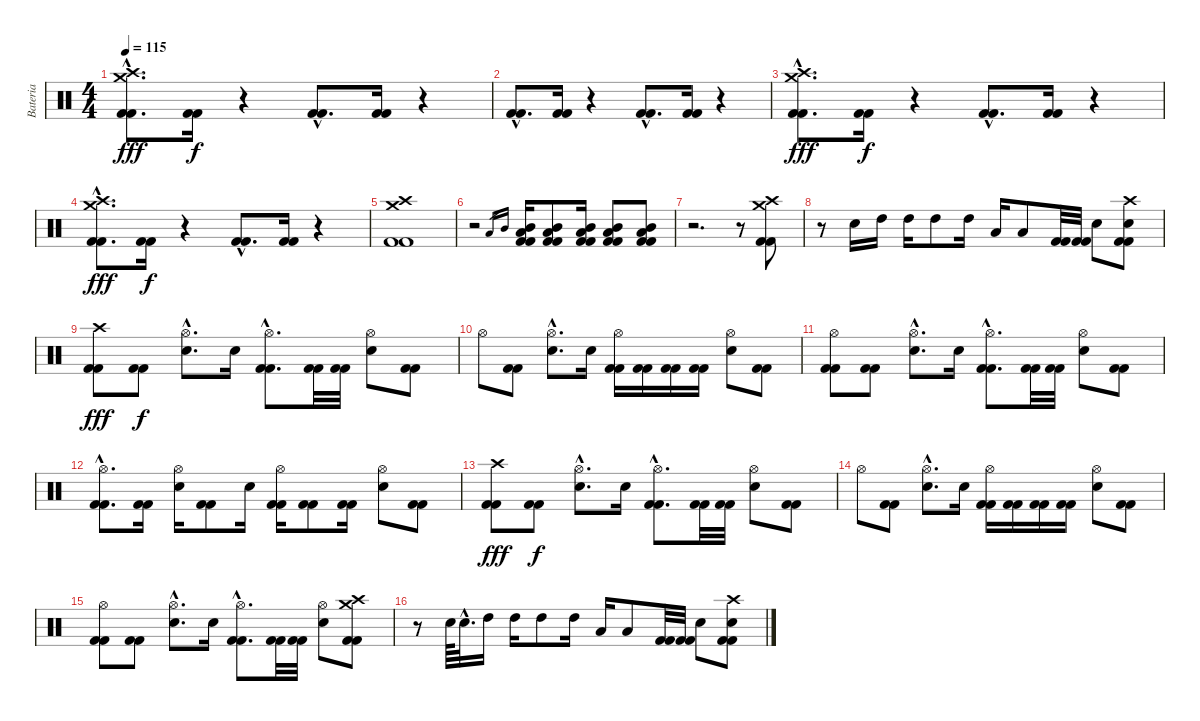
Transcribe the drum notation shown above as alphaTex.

\track ("Bateria" "Bateria") {instrument percussion}
\staff {score}
\articulation defaults
\ts (4 4)
\tempo 115
\clef neutral
\ks c
("Crash high (hit)" "Crash medium (hit)" "Kick (hit) 2"{hac} "Kick (hit) 2"{hac}).8{d dy fff} ("Kick (hit) 2" "Kick (hit) 2").16{dy f} r.4 ("Kick (hit) 2"{hac} "Kick (hit) 2"{hac}).8{d} ("Kick (hit) 2" "Kick (hit) 2").16 r.4 |
("Kick (hit) 2"{hac} "Kick (hit) 2"{hac}).8{d} ("Kick (hit) 2" "Kick (hit) 2").16 r.4 ("Kick (hit) 2"{hac} "Kick (hit) 2"{hac}).8{d} ("Kick (hit) 2" "Kick (hit) 2").16 r.4 |
("Crash high (hit)" "Crash medium (hit)" "Kick (hit) 2"{hac} "Kick (hit) 2"{hac}).8{d dy fff} ("Kick (hit) 2" "Kick (hit) 2").16{dy f} r.4 ("Kick (hit) 2"{hac} "Kick (hit) 2"{hac}).8{d} ("Kick (hit) 2" "Kick (hit) 2").16 r.4 |
("Crash high (hit)" "Crash medium (hit)" "Kick (hit) 2"{hac} "Kick (hit) 2"{hac}).8{d dy fff} ("Kick (hit) 2" "Kick (hit) 2").16{dy f} r.4 ("Kick (hit) 2"{hac} "Kick (hit) 2"{hac}).8{d} ("Kick (hit) 2" "Kick (hit) 2").16 r.4 |
("Crash high (hit)" "Crash medium (hit)" "Kick (hit) 2" "Kick (hit) 2").1 |
r.2 "Low Tom (hit)".16{gr} "Mid Tom (hit)".16{gr} ("Low Tom (hit)" "Mid Tom (hit)" "Kick (hit) 2" "Kick (hit) 2").16 ("Low Tom (hit)" "Mid Tom (hit)" "Kick (hit) 2" "Kick (hit) 2").8 ("Low Tom (hit)" "Mid Tom (hit)" "Kick (hit) 2" "Kick (hit) 2").16 ("Low Tom (hit)" "Mid Tom (hit)" "Kick (hit) 2" "Kick (hit) 2").8 ("Low Tom (hit)" "Mid Tom (hit)" "Kick (hit) 2" "Kick (hit) 2").8 |
r.2{d} r.8 ("Crash high (hit)" "Crash medium (hit)" "Kick (hit) 2" "Kick (hit) 2").8 |
r.8 "Electric Snare (hit)".16 "High Tom (hit)".16 "High Tom (hit)".16 "High Tom (hit)".8 "High Tom (hit)".16 "Low Tom (hit)".16 "Low Tom (hit)".8 ("Kick (hit) 2" "Kick (hit) 2").32 ("Kick (hit) 2" "Kick (hit) 2").32 "Electric Snare (hit)".8 ("Crash high (hit)" "Electric Snare (hit)" "Kick (hit) 2" "Kick (hit) 2").8 |
("Crash high (hit)" "Kick (hit) 2" "Kick (hit) 2").8{dy fff} ("Kick (hit) 2" "Kick (hit) 2").8{dy f} ("Hi-Hat (open)"{hac} "Electric Snare (hit)"{hac}).8{d} "Electric Snare (hit)".16 ("Hi-Hat (open)"{hac} "Kick (hit) 2"{hac} "Kick (hit) 2"{hac}).8{d} ("Kick (hit) 2" "Kick (hit) 2").32 ("Kick (hit) 2" "Kick (hit) 2").32 ("Hi-Hat (open)" "Electric Snare (hit)").8 ("Kick (hit) 2" "Kick (hit) 2").8 |
"Hi-Hat (open)".8 ("Kick (hit) 2" "Kick (hit) 2").8 ("Hi-Hat (open)"{hac} "Electric Snare (hit)"{hac}).8{d} "Electric Snare (hit)".16 ("Hi-Hat (open)" "Kick (hit) 2" "Kick (hit) 2").16 ("Kick (hit) 2" "Kick (hit) 2").16 ("Kick (hit) 2" "Kick (hit) 2").16 ("Kick (hit) 2" "Kick (hit) 2").16 ("Hi-Hat (open)" "Electric Snare (hit)").8 ("Kick (hit) 2" "Kick (hit) 2").8 |
("Hi-Hat (open)" "Kick (hit) 2" "Kick (hit) 2").8 ("Kick (hit) 2" "Kick (hit) 2").8 ("Hi-Hat (open)"{hac} "Electric Snare (hit)"{hac}).8{d} "Electric Snare (hit)".16 ("Hi-Hat (open)"{hac} "Kick (hit) 2"{hac} "Kick (hit) 2"{hac}).8{d} ("Kick (hit) 2" "Kick (hit) 2").32 ("Kick (hit) 2" "Kick (hit) 2").32 ("Hi-Hat (open)" "Electric Snare (hit)").8 ("Kick (hit) 2" "Kick (hit) 2").8 |
("Hi-Hat (open)"{hac} "Kick (hit) 2"{hac} "Kick (hit) 2"{hac}).8{d} ("Kick (hit) 2" "Kick (hit) 2").16 ("Hi-Hat (open)" "Electric Snare (hit)").16 ("Kick (hit) 2" "Kick (hit) 2").8 "Electric Snare (hit)".16 ("Hi-Hat (open)" "Kick (hit) 2" "Kick (hit) 2").16 ("Kick (hit) 2" "Kick (hit) 2").8 ("Kick (hit) 2" "Kick (hit) 2").16 ("Hi-Hat (open)" "Electric Snare (hit)").8 ("Kick (hit) 2" "Kick (hit) 2").8 |
("Crash high (hit)" "Kick (hit) 2" "Kick (hit) 2").8{dy fff} ("Kick (hit) 2" "Kick (hit) 2").8{dy f} ("Hi-Hat (open)"{hac} "Electric Snare (hit)"{hac}).8{d} "Electric Snare (hit)".16 ("Hi-Hat (open)"{hac} "Kick (hit) 2"{hac} "Kick (hit) 2"{hac}).8{d} ("Kick (hit) 2" "Kick (hit) 2").32 ("Kick (hit) 2" "Kick (hit) 2").32 ("Hi-Hat (open)" "Electric Snare (hit)").8 ("Kick (hit) 2" "Kick (hit) 2").8 |
"Hi-Hat (open)".8 ("Kick (hit) 2" "Kick (hit) 2").8 ("Hi-Hat (open)"{hac} "Electric Snare (hit)"{hac}).8{d} "Electric Snare (hit)".16 ("Hi-Hat (open)" "Kick (hit) 2" "Kick (hit) 2").16 ("Kick (hit) 2" "Kick (hit) 2").16 ("Kick (hit) 2" "Kick (hit) 2").16 ("Kick (hit) 2" "Kick (hit) 2").16 ("Hi-Hat (open)" "Electric Snare (hit)").8 ("Kick (hit) 2" "Kick (hit) 2").8 |
("Hi-Hat (open)" "Kick (hit) 2" "Kick (hit) 2").8 ("Kick (hit) 2" "Kick (hit) 2").8 ("Hi-Hat (open)"{hac} "Electric Snare (hit)"{hac}).8{d} "Electric Snare (hit)".16 ("Hi-Hat (open)"{hac} "Kick (hit) 2"{hac} "Kick (hit) 2"{hac}).8{d} ("Kick (hit) 2" "Kick (hit) 2").32 ("Kick (hit) 2" "Kick (hit) 2").32 ("Hi-Hat (open)" "Electric Snare (hit)").8 ("Crash high (hit)" "Crash medium (hit)" "Kick (hit) 2" "Kick (hit) 2").8 |
r.8 "Electric Snare (hit)".64 "Electric Snare (hit)"{hac}.32{d} "High Tom (hit)".16 "High Tom (hit)".16 "High Tom (hit)".8 "High Tom (hit)".16 "Low Tom (hit)".16 "Low Tom (hit)".8 ("Kick (hit) 2" "Kick (hit) 2").32 ("Kick (hit) 2" "Kick (hit) 2").32 "Electric Snare (hit)".8 ("Crash high (hit)" "Electric Snare (hit)" "Kick (hit) 2" "Kick (hit) 2").8
